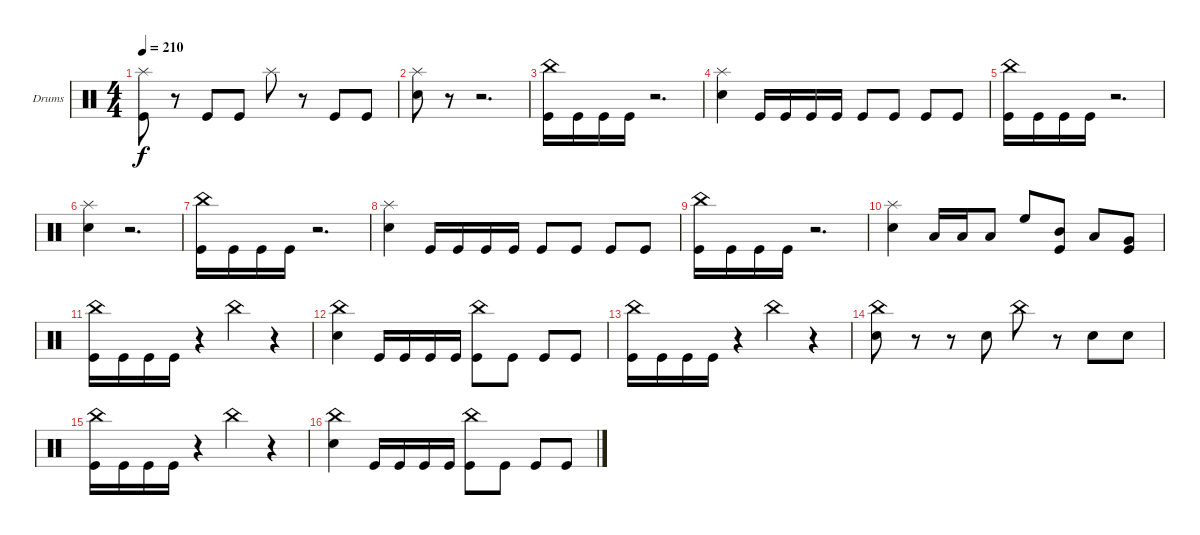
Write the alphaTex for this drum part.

\defaultSystemsLayout 4
\bracketExtendMode groupsimilarinstruments
\firstSystemTrackNameOrientation horizontal
\otherSystemsTrackNameOrientation horizontal
\track ("Drumkit" "Drums") {instrument percussion}
\staff {score}
\articulation defaults
\ts (4 4)
\tempo 210
\clef neutral
\ks c
("Splash (hit)" "Kick (hit)").8{dy f} r.8 "Kick (hit)".8 "Kick (hit)".8 "Splash (hit)".8 r.8 "Kick (hit)".8 "Kick (hit)".8 |
("Snare (hit) 2" "Splash (hit)").8 r.8 r.2{d} |
("Kick (hit)" "China (hit)").16 "Kick (hit)".16 "Kick (hit)".16 "Kick (hit)".16 r.2{d} |
("Splash (hit)" "Snare (hit) 2").4 "Kick (hit)".16 "Kick (hit)".16 "Kick (hit)".16 "Kick (hit)".16 "Kick (hit)".8 "Kick (hit)".8 "Kick (hit)".8 "Kick (hit)".8 |
("Kick (hit)" "China (hit)").16 "Kick (hit)".16 "Kick (hit)".16 "Kick (hit)".16 r.2{d} |
("Snare (hit) 2" "Splash (hit)").4 r.2{d} |
("Kick (hit)" "China (hit)").16 "Kick (hit)".16 "Kick (hit)".16 "Kick (hit)".16 r.2{d} |
("Splash (hit)" "Snare (hit) 2").4 "Kick (hit)".16 "Kick (hit)".16 "Kick (hit)".16 "Kick (hit)".16 "Kick (hit)".8 "Kick (hit)".8 "Kick (hit)".8 "Kick (hit)".8 |
("Kick (hit)" "China (hit)").16 "Kick (hit)".16 "Kick (hit)".16 "Kick (hit)".16 r.2{d} |
("Snare (hit) 2" "Splash (hit)").4 "Low Tom (hit)".16 "Low Tom (hit)".16 "Low Tom (hit)".8 "High Floor Tom (hit)".8 ("Mid Tom (hit)" "Kick (hit)").8 "Low Tom (hit)".8 ("Kick (hit)" "Very Low Tom (hit)").8 |
("Kick (hit)" "China (hit)").16 "Kick (hit)".16 "Kick (hit)".16 "Kick (hit)".16 r.4 "China (hit)".4 r.4 |
("Snare (hit) 2" "China (hit)").4 "Kick (hit)".16 "Kick (hit)".16 "Kick (hit)".16 "Kick (hit)".16 ("Kick (hit)" "China (hit)").8 "Kick (hit)".8 "Kick (hit)".8 "Kick (hit)".8 |
("Kick (hit)" "China (hit)").16 "Kick (hit)".16 "Kick (hit)".16 "Kick (hit)".16 r.4 "China (hit)".4 r.4 |
("Snare (hit) 2" "China (hit)").8 r.8 r.8 "Snare (hit) 2".8 "China (hit)".8 r.8 "Snare (hit) 2".8 "Snare (hit) 2".8 |
("Kick (hit)" "China (hit)").16 "Kick (hit)".16 "Kick (hit)".16 "Kick (hit)".16 r.4 "China (hit)".4 r.4 |
("Snare (hit) 2" "China (hit)").4 "Kick (hit)".16 "Kick (hit)".16 "Kick (hit)".16 "Kick (hit)".16 ("Kick (hit)" "China (hit)").8 "Kick (hit)".8 "Kick (hit)".8 "Kick (hit)".8
